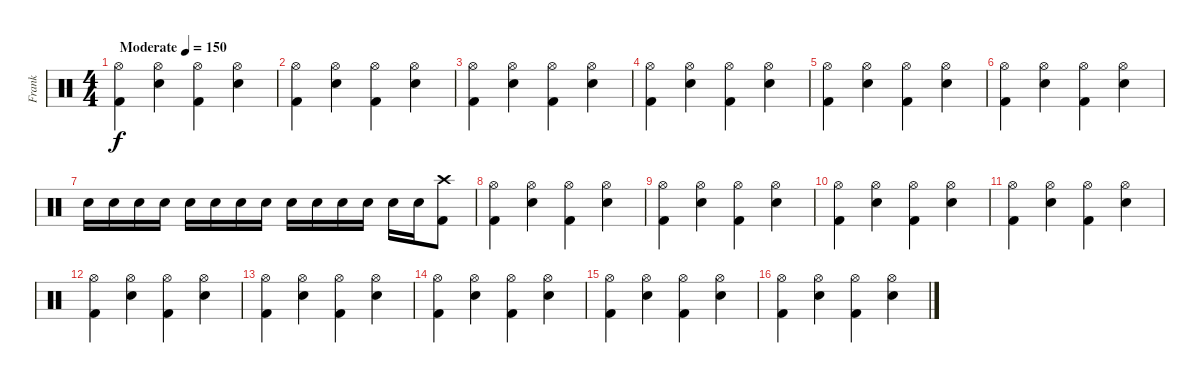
\track ("Frank" "Frank") {instrument percussion}
\staff {score}
\articulation defaults
\ts (4 4)
\tempo (150 "Moderate")
\clef neutral
\ks c
("Hi-Hat (open)" "Kick (hit) 2").4{dy f} ("Hi-Hat (open)" "Snare (hit) 2").4 ("Hi-Hat (open)" "Kick (hit) 2").4 ("Hi-Hat (open)" "Snare (hit) 2").4 |
("Hi-Hat (open)" "Kick (hit) 2").4 ("Hi-Hat (open)" "Snare (hit) 2").4 ("Hi-Hat (open)" "Kick (hit) 2").4 ("Hi-Hat (open)" "Snare (hit) 2").4 |
("Hi-Hat (open)" "Kick (hit) 2").4 ("Hi-Hat (open)" "Snare (hit) 2").4 ("Hi-Hat (open)" "Kick (hit) 2").4 ("Hi-Hat (open)" "Snare (hit) 2").4 |
("Hi-Hat (open)" "Kick (hit) 2").4 ("Hi-Hat (open)" "Snare (hit) 2").4 ("Hi-Hat (open)" "Kick (hit) 2").4 ("Hi-Hat (open)" "Snare (hit) 2").4 |
("Hi-Hat (open)" "Kick (hit) 2").4 ("Hi-Hat (open)" "Snare (hit) 2").4 ("Hi-Hat (open)" "Kick (hit) 2").4 ("Hi-Hat (open)" "Snare (hit) 2").4 |
("Hi-Hat (open)" "Kick (hit) 2").4 ("Hi-Hat (open)" "Snare (hit) 2").4 ("Hi-Hat (open)" "Kick (hit) 2").4 ("Hi-Hat (open)" "Snare (hit) 2").4 |
"Snare (hit) 2".16 "Snare (hit) 2".16 "Snare (hit) 2".16 "Snare (hit) 2".16 "Snare (hit) 2".16 "Snare (hit) 2".16 "Snare (hit) 2".16 "Snare (hit) 2".16 "Snare (hit) 2".16 "Snare (hit) 2".16 "Snare (hit) 2".16 "Snare (hit) 2".16 "Snare (hit) 2".16 "Snare (hit) 2".16 ("Crash high (hit)" "Kick (hit) 2").8 |
("Hi-Hat (open)" "Kick (hit) 2").4 ("Hi-Hat (open)" "Snare (hit) 2").4 ("Hi-Hat (open)" "Kick (hit) 2").4 ("Hi-Hat (open)" "Snare (hit) 2").4 |
("Hi-Hat (open)" "Kick (hit) 2").4 ("Hi-Hat (open)" "Snare (hit) 2").4 ("Hi-Hat (open)" "Kick (hit) 2").4 ("Hi-Hat (open)" "Snare (hit) 2").4 |
("Hi-Hat (open)" "Kick (hit) 2").4 ("Hi-Hat (open)" "Snare (hit) 2").4 ("Hi-Hat (open)" "Kick (hit) 2").4 ("Hi-Hat (open)" "Snare (hit) 2").4 |
("Hi-Hat (open)" "Kick (hit) 2").4 ("Hi-Hat (open)" "Snare (hit) 2").4 ("Hi-Hat (open)" "Kick (hit) 2").4 ("Hi-Hat (open)" "Snare (hit) 2").4 |
("Hi-Hat (open)" "Kick (hit) 2").4 ("Hi-Hat (open)" "Snare (hit) 2").4 ("Hi-Hat (open)" "Kick (hit) 2").4 ("Hi-Hat (open)" "Snare (hit) 2").4 |
("Hi-Hat (open)" "Kick (hit) 2").4 ("Hi-Hat (open)" "Snare (hit) 2").4 ("Hi-Hat (open)" "Kick (hit) 2").4 ("Hi-Hat (open)" "Snare (hit) 2").4 |
("Hi-Hat (open)" "Kick (hit) 2").4 ("Hi-Hat (open)" "Snare (hit) 2").4 ("Hi-Hat (open)" "Kick (hit) 2").4 ("Hi-Hat (open)" "Snare (hit) 2").4 |
("Hi-Hat (open)" "Kick (hit) 2").4 ("Hi-Hat (open)" "Snare (hit) 2").4 ("Hi-Hat (open)" "Kick (hit) 2").4 ("Hi-Hat (open)" "Snare (hit) 2").4 |
("Hi-Hat (open)" "Kick (hit) 2").4 ("Hi-Hat (open)" "Snare (hit) 2").4 ("Hi-Hat (open)" "Kick (hit) 2").4 ("Hi-Hat (open)" "Snare (hit) 2").4
